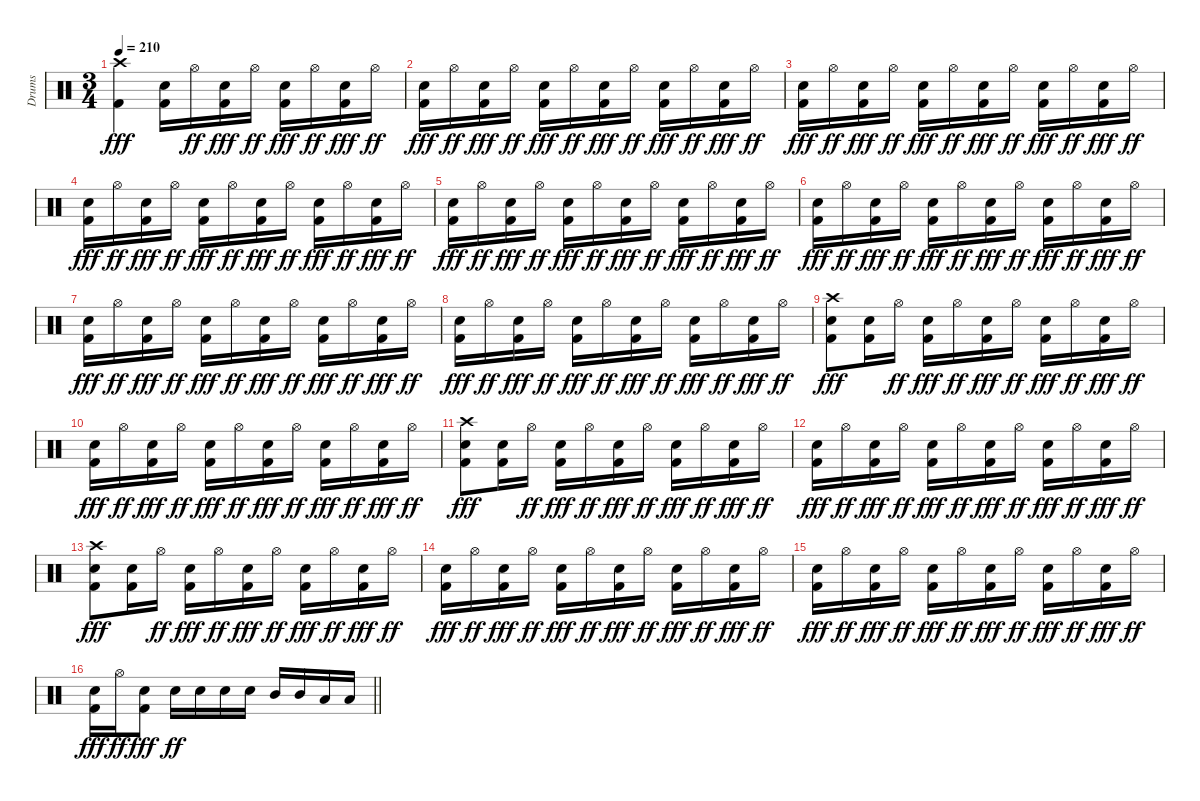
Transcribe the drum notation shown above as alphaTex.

\track ("Drums" "Drums") {instrument percussion}
\staff {score}
\articulation defaults
\ts (3 4)
\tempo 210
\clef neutral
\ks c
("Crash high (hit)" "Kick (hit) 2").4{dy fff} ("Snare (hit) 2" "Kick (hit) 2").16 "Hi-Hat (open)".16{dy ff} ("Snare (hit) 2" "Kick (hit) 2").16{dy fff} "Hi-Hat (open)".16{dy ff} ("Snare (hit) 2" "Kick (hit) 2").16{dy fff} "Hi-Hat (open)".16{dy ff} ("Snare (hit) 2" "Kick (hit) 2").16{dy fff} "Hi-Hat (open)".16{dy ff} |
("Snare (hit) 2" "Kick (hit) 2").16{dy fff} "Hi-Hat (open)".16{dy ff} ("Snare (hit) 2" "Kick (hit) 2").16{dy fff} "Hi-Hat (open)".16{dy ff} ("Snare (hit) 2" "Kick (hit) 2").16{dy fff} "Hi-Hat (open)".16{dy ff} ("Snare (hit) 2" "Kick (hit) 2").16{dy fff} "Hi-Hat (open)".16{dy ff} ("Snare (hit) 2" "Kick (hit) 2").16{dy fff} "Hi-Hat (open)".16{dy ff} ("Snare (hit) 2" "Kick (hit) 2").16{dy fff} "Hi-Hat (open)".16{dy ff} |
("Snare (hit) 2" "Kick (hit) 2").16{dy fff} "Hi-Hat (open)".16{dy ff} ("Snare (hit) 2" "Kick (hit) 2").16{dy fff} "Hi-Hat (open)".16{dy ff} ("Snare (hit) 2" "Kick (hit) 2").16{dy fff} "Hi-Hat (open)".16{dy ff} ("Snare (hit) 2" "Kick (hit) 2").16{dy fff} "Hi-Hat (open)".16{dy ff} ("Snare (hit) 2" "Kick (hit) 2").16{dy fff} "Hi-Hat (open)".16{dy ff} ("Snare (hit) 2" "Kick (hit) 2").16{dy fff} "Hi-Hat (open)".16{dy ff} |
("Snare (hit) 2" "Kick (hit) 2").16{dy fff} "Hi-Hat (open)".16{dy ff} ("Snare (hit) 2" "Kick (hit) 2").16{dy fff} "Hi-Hat (open)".16{dy ff} ("Snare (hit) 2" "Kick (hit) 2").16{dy fff} "Hi-Hat (open)".16{dy ff} ("Snare (hit) 2" "Kick (hit) 2").16{dy fff} "Hi-Hat (open)".16{dy ff} ("Snare (hit) 2" "Kick (hit) 2").16{dy fff} "Hi-Hat (open)".16{dy ff} ("Snare (hit) 2" "Kick (hit) 2").16{dy fff} "Hi-Hat (open)".16{dy ff} |
("Snare (hit) 2" "Kick (hit) 2").16{dy fff} "Hi-Hat (open)".16{dy ff} ("Snare (hit) 2" "Kick (hit) 2").16{dy fff} "Hi-Hat (open)".16{dy ff} ("Snare (hit) 2" "Kick (hit) 2").16{dy fff} "Hi-Hat (open)".16{dy ff} ("Snare (hit) 2" "Kick (hit) 2").16{dy fff} "Hi-Hat (open)".16{dy ff} ("Snare (hit) 2" "Kick (hit) 2").16{dy fff} "Hi-Hat (open)".16{dy ff} ("Snare (hit) 2" "Kick (hit) 2").16{dy fff} "Hi-Hat (open)".16{dy ff} |
("Snare (hit) 2" "Kick (hit) 2").16{dy fff} "Hi-Hat (open)".16{dy ff} ("Snare (hit) 2" "Kick (hit) 2").16{dy fff} "Hi-Hat (open)".16{dy ff} ("Snare (hit) 2" "Kick (hit) 2").16{dy fff} "Hi-Hat (open)".16{dy ff} ("Snare (hit) 2" "Kick (hit) 2").16{dy fff} "Hi-Hat (open)".16{dy ff} ("Snare (hit) 2" "Kick (hit) 2").16{dy fff} "Hi-Hat (open)".16{dy ff} ("Snare (hit) 2" "Kick (hit) 2").16{dy fff} "Hi-Hat (open)".16{dy ff} |
("Snare (hit) 2" "Kick (hit) 2").16{dy fff} "Hi-Hat (open)".16{dy ff} ("Snare (hit) 2" "Kick (hit) 2").16{dy fff} "Hi-Hat (open)".16{dy ff} ("Snare (hit) 2" "Kick (hit) 2").16{dy fff} "Hi-Hat (open)".16{dy ff} ("Snare (hit) 2" "Kick (hit) 2").16{dy fff} "Hi-Hat (open)".16{dy ff} ("Snare (hit) 2" "Kick (hit) 2").16{dy fff} "Hi-Hat (open)".16{dy ff} ("Snare (hit) 2" "Kick (hit) 2").16{dy fff} "Hi-Hat (open)".16{dy ff} |
("Snare (hit) 2" "Kick (hit) 2").16{dy fff} "Hi-Hat (open)".16{dy ff} ("Snare (hit) 2" "Kick (hit) 2").16{dy fff} "Hi-Hat (open)".16{dy ff} ("Snare (hit) 2" "Kick (hit) 2").16{dy fff} "Hi-Hat (open)".16{dy ff} ("Snare (hit) 2" "Kick (hit) 2").16{dy fff} "Hi-Hat (open)".16{dy ff} ("Snare (hit) 2" "Kick (hit) 2").16{dy fff} "Hi-Hat (open)".16{dy ff} ("Snare (hit) 2" "Kick (hit) 2").16{dy fff} "Hi-Hat (open)".16{dy ff} |
("Crash high (hit)" "Snare (hit) 2" "Kick (hit) 2").8{dy fff} ("Snare (hit) 2" "Kick (hit) 2").16 "Hi-Hat (open)".16{dy ff} ("Snare (hit) 2" "Kick (hit) 2").16{dy fff} "Hi-Hat (open)".16{dy ff} ("Snare (hit) 2" "Kick (hit) 2").16{dy fff} "Hi-Hat (open)".16{dy ff} ("Snare (hit) 2" "Kick (hit) 2").16{dy fff} "Hi-Hat (open)".16{dy ff} ("Snare (hit) 2" "Kick (hit) 2").16{dy fff} "Hi-Hat (open)".16{dy ff} |
("Snare (hit) 2" "Kick (hit) 2").16{dy fff} "Hi-Hat (open)".16{dy ff} ("Snare (hit) 2" "Kick (hit) 2").16{dy fff} "Hi-Hat (open)".16{dy ff} ("Snare (hit) 2" "Kick (hit) 2").16{dy fff} "Hi-Hat (open)".16{dy ff} ("Snare (hit) 2" "Kick (hit) 2").16{dy fff} "Hi-Hat (open)".16{dy ff} ("Snare (hit) 2" "Kick (hit) 2").16{dy fff} "Hi-Hat (open)".16{dy ff} ("Snare (hit) 2" "Kick (hit) 2").16{dy fff} "Hi-Hat (open)".16{dy ff} |
("Crash high (hit)" "Snare (hit) 2" "Kick (hit) 2").8{dy fff} ("Snare (hit) 2" "Kick (hit) 2").16 "Hi-Hat (open)".16{dy ff} ("Snare (hit) 2" "Kick (hit) 2").16{dy fff} "Hi-Hat (open)".16{dy ff} ("Snare (hit) 2" "Kick (hit) 2").16{dy fff} "Hi-Hat (open)".16{dy ff} ("Snare (hit) 2" "Kick (hit) 2").16{dy fff} "Hi-Hat (open)".16{dy ff} ("Snare (hit) 2" "Kick (hit) 2").16{dy fff} "Hi-Hat (open)".16{dy ff} |
("Snare (hit) 2" "Kick (hit) 2").16{dy fff} "Hi-Hat (open)".16{dy ff} ("Snare (hit) 2" "Kick (hit) 2").16{dy fff} "Hi-Hat (open)".16{dy ff} ("Snare (hit) 2" "Kick (hit) 2").16{dy fff} "Hi-Hat (open)".16{dy ff} ("Snare (hit) 2" "Kick (hit) 2").16{dy fff} "Hi-Hat (open)".16{dy ff} ("Snare (hit) 2" "Kick (hit) 2").16{dy fff} "Hi-Hat (open)".16{dy ff} ("Snare (hit) 2" "Kick (hit) 2").16{dy fff} "Hi-Hat (open)".16{dy ff} |
("Crash high (hit)" "Snare (hit) 2" "Kick (hit) 2").8{dy fff} ("Snare (hit) 2" "Kick (hit) 2").16 "Hi-Hat (open)".16{dy ff} ("Snare (hit) 2" "Kick (hit) 2").16{dy fff} "Hi-Hat (open)".16{dy ff} ("Snare (hit) 2" "Kick (hit) 2").16{dy fff} "Hi-Hat (open)".16{dy ff} ("Snare (hit) 2" "Kick (hit) 2").16{dy fff} "Hi-Hat (open)".16{dy ff} ("Snare (hit) 2" "Kick (hit) 2").16{dy fff} "Hi-Hat (open)".16{dy ff} |
("Snare (hit) 2" "Kick (hit) 2").16{dy fff} "Hi-Hat (open)".16{dy ff} ("Snare (hit) 2" "Kick (hit) 2").16{dy fff} "Hi-Hat (open)".16{dy ff} ("Snare (hit) 2" "Kick (hit) 2").16{dy fff} "Hi-Hat (open)".16{dy ff} ("Snare (hit) 2" "Kick (hit) 2").16{dy fff} "Hi-Hat (open)".16{dy ff} ("Snare (hit) 2" "Kick (hit) 2").16{dy fff} "Hi-Hat (open)".16{dy ff} ("Snare (hit) 2" "Kick (hit) 2").16{dy fff} "Hi-Hat (open)".16{dy ff} |
("Snare (hit) 2" "Kick (hit) 2").16{dy fff} "Hi-Hat (open)".16{dy ff} ("Snare (hit) 2" "Kick (hit) 2").16{dy fff} "Hi-Hat (open)".16{dy ff} ("Snare (hit) 2" "Kick (hit) 2").16{dy fff} "Hi-Hat (open)".16{dy ff} ("Snare (hit) 2" "Kick (hit) 2").16{dy fff} "Hi-Hat (open)".16{dy ff} ("Snare (hit) 2" "Kick (hit) 2").16{dy fff} "Hi-Hat (open)".16{dy ff} ("Snare (hit) 2" "Kick (hit) 2").16{dy fff} "Hi-Hat (open)".16{dy ff} |
\barLineRight lightlight
("Snare (hit) 2" "Kick (hit) 2").16{dy fff} "Hi-Hat (open)".16{dy ff} ("Snare (hit) 2" "Kick (hit) 2").8{dy fff} "Snare (hit) 2".16{dy ff} "Snare (hit) 2".16 "Snare (hit) 2".16 "Snare (hit) 2".16 "Mid Tom (hit)".16 "Mid Tom (hit)".16 "Low Tom (hit)".16 "Low Tom (hit)".16
